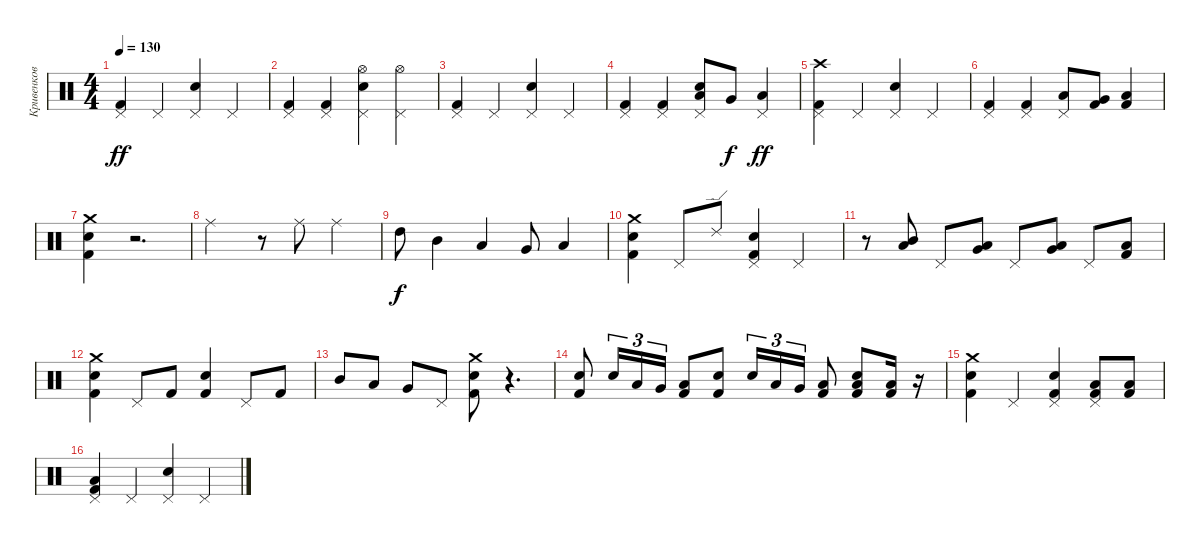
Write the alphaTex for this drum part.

\track ("Кривенков Дмитрий" "Кривенков ") {instrument percussion}
\staff {score}
\articulation defaults
\ts (4 4)
\tempo 130
\clef neutral
\ks c
("Kick (hit) 2" "Pedal Hi-Hat (hit)").4{dy ff} "Pedal Hi-Hat (hit)".4 ("Pedal Hi-Hat (hit)" "Electric Snare (hit)").4 "Pedal Hi-Hat (hit)".4 |
("Kick (hit) 2" "Pedal Hi-Hat (hit)").4 ("Kick (hit) 2" "Pedal Hi-Hat (hit)").4 ("Pedal Hi-Hat (hit)" "Electric Snare (hit)" "Hi-Hat (open)").4 ("Pedal Hi-Hat (hit)" "Hi-Hat (open)").4 |
("Kick (hit) 2" "Pedal Hi-Hat (hit)").4 "Pedal Hi-Hat (hit)".4 ("Pedal Hi-Hat (hit)" "Electric Snare (hit)").4 "Pedal Hi-Hat (hit)".4 |
("Kick (hit) 2" "Pedal Hi-Hat (hit)").4 ("Kick (hit) 2" "Pedal Hi-Hat (hit)").4 ("Pedal Hi-Hat (hit)" "Electric Snare (hit)" "Low Tom (hit)").8 "Very Low Tom (hit)".8{dy f} ("Low Floor Tom (hit)" "Pedal Hi-Hat (hit)").4{dy ff} |
("Crash high (hit)" "Kick (hit) 2" "Pedal Hi-Hat (hit)").4 "Pedal Hi-Hat (hit)".4 ("Pedal Hi-Hat (hit)" "Electric Snare (hit)").4 "Pedal Hi-Hat (hit)".4 |
("Kick (hit) 2" "Pedal Hi-Hat (hit)").4 ("Kick (hit) 2" "Pedal Hi-Hat (hit)").4 ("Pedal Hi-Hat (hit)" "Low Tom (hit)").8 ("Kick (hit) 2" "Very Low Tom (hit)").8 ("Kick (hit) 2" "Low Floor Tom (hit)").4 |
("Kick (hit) 2" "Electric Snare (hit)" "Crash medium (hit)").4 r.2{d} |
"Ride (middle)".2 r.8 "Ride (middle)".8 "Ride (middle)".4 |
"High Tom (hit)".8{dy f} "Mid Tom (hit)".4 "Low Tom (hit)".4 "Very Low Tom (hit)".8 "Low Floor Tom (hit)".4 |
("Crash medium (hit)" "Kick (hit) 2" "Electric Snare (hit)").4 "Pedal Hi-Hat (hit)".8 "Ride (edge) 2".8 ("Electric Snare (hit)" "Kick (hit) 2" "Pedal Hi-Hat (hit)").4 "Pedal Hi-Hat (hit)".4 |
r.8 ("Mid Tom (hit)" "Low Tom (hit)").8 "Pedal Hi-Hat (hit)".8 ("Low Tom (hit)" "Very Low Tom (hit)").8 "Pedal Hi-Hat (hit)".8 ("Very Low Tom (hit)" "Low Floor Tom (hit)").8 "Pedal Hi-Hat (hit)".8 ("Kick (hit) 2" "Low Floor Tom (hit)").8 |
("Electric Snare (hit)" "Kick (hit) 2" "Crash medium (hit)").4 "Pedal Hi-Hat (hit)".8 "Kick (hit) 2".8 ("Electric Snare (hit)" "Kick (hit) 2").4 "Pedal Hi-Hat (hit)".8 "Kick (hit) 2".8 |
"Mid Tom (hit)".8 "Low Tom (hit)".8 "Very Low Tom (hit)".8 "Pedal Hi-Hat (hit)".8 ("Electric Snare (hit)" "Kick (hit) 2" "Crash medium (hit)").8 r.4{d} |
("Kick (hit) 2" "Electric Snare (hit)").8 "Electric Snare (hit)".16{tu (3 2)} "Low Tom (hit)".16{tu (3 2)} "Very Low Tom (hit)".16{tu (3 2)} ("Kick (hit) 2" "Low Floor Tom (hit)").8 ("Kick (hit) 2" "Electric Snare (hit)").8 "Electric Snare (hit)".16{tu (3 2)} "Low Tom (hit)".16{tu (3 2)} "Very Low Tom (hit)".16{tu (3 2)} ("Kick (hit) 2" "Low Floor Tom (hit)").8 ("Kick (hit) 2" "Electric Snare (hit)" "Low Floor Tom (hit)").8 ("Kick (hit) 2" "Low Floor Tom (hit)").16 r.16 |
("Kick (hit) 2" "Electric Snare (hit)" "Crash medium (hit)").4 "Pedal Hi-Hat (hit)".4 ("Pedal Hi-Hat (hit)" "Kick (hit) 2" "Electric Snare (hit)").4 ("Kick (hit) 2" "Pedal Hi-Hat (hit)" "Low Floor Tom (hit)").8 ("Low Floor Tom (hit)" "Kick (hit) 2").8 |
("Kick (hit) 2" "Pedal Hi-Hat (hit)" "Low Floor Tom (hit)").4 "Pedal Hi-Hat (hit)".4 ("Pedal Hi-Hat (hit)" "Electric Snare (hit)").4 "Pedal Hi-Hat (hit)".4
